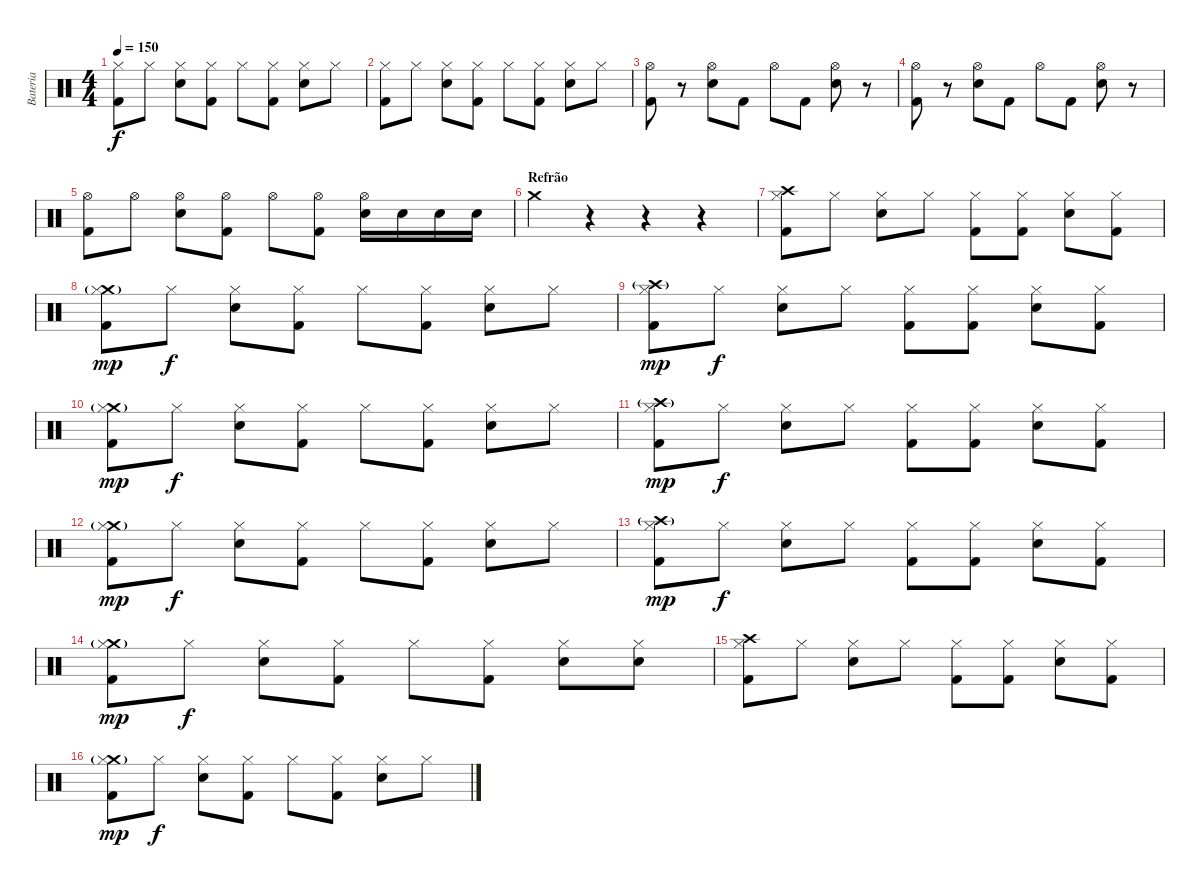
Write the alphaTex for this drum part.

\track ("Bateria" "Bateria") {instrument percussion}
\staff {score}
\articulation defaults
\ts (4 4)
\tempo 150
\clef neutral
\ks c
("Kick (hit) 2" "Hi-Hat (closed)").8{dy f} "Hi-Hat (closed)".8 ("Electric Snare (hit)" "Hi-Hat (closed)").8 ("Kick (hit) 2" "Hi-Hat (closed)").8 "Hi-Hat (closed)".8 ("Kick (hit) 2" "Hi-Hat (closed)").8 ("Electric Snare (hit)" "Hi-Hat (closed)").8 "Hi-Hat (closed)".8 |
("Kick (hit) 2" "Hi-Hat (closed)").8 "Hi-Hat (closed)".8 ("Electric Snare (hit)" "Hi-Hat (closed)").8 ("Kick (hit) 2" "Hi-Hat (closed)").8 "Hi-Hat (closed)".8 ("Kick (hit) 2" "Hi-Hat (closed)").8 ("Electric Snare (hit)" "Hi-Hat (closed)").8 "Hi-Hat (closed)".8 |
("Kick (hit) 2" "Hi-Hat (open)").8 r.8 ("Electric Snare (hit)" "Hi-Hat (open)").8 "Kick (hit) 2".8 "Hi-Hat (open)".8 "Kick (hit) 2".8 ("Electric Snare (hit)" "Hi-Hat (open)").8 r.8 |
("Kick (hit) 2" "Hi-Hat (open)").8 r.8 ("Electric Snare (hit)" "Hi-Hat (open)").8 "Kick (hit) 2".8 "Hi-Hat (open)".8 "Kick (hit) 2".8 ("Electric Snare (hit)" "Hi-Hat (open)").8 r.8 |
("Kick (hit) 2" "Hi-Hat (open)").8 "Hi-Hat (open)".8 ("Electric Snare (hit)" "Hi-Hat (open)").8 ("Kick (hit) 2" "Hi-Hat (open)").8 "Hi-Hat (open)".8 ("Kick (hit) 2" "Hi-Hat (open)").8 ("Electric Snare (hit)" "Hi-Hat (open)").16 "Electric Snare (hit)".16 "Electric Snare (hit)".16 "Electric Snare (hit)".16 |
\section ("" "Refrão")
"Crash medium (hit)".4 r.4 r.4 r.4 |
("Kick (hit) 2" "Crash high (hit)" "Hi-Hat (closed)").8 "Hi-Hat (closed)".8 ("Electric Snare (hit)" "Hi-Hat (closed)").8 "Hi-Hat (closed)".8 ("Kick (hit) 2" "Hi-Hat (closed)").8 ("Kick (hit) 2" "Hi-Hat (closed)").8 ("Electric Snare (hit)" "Hi-Hat (closed)").8 ("Kick (hit) 2" "Hi-Hat (closed)").8 |
("Kick (hit) 2" "Crash medium (hit)"{g} "Hi-Hat (closed)").8{dy mp} "Hi-Hat (closed)".8{dy f} ("Electric Snare (hit)" "Hi-Hat (closed)").8 ("Kick (hit) 2" "Hi-Hat (closed)").8 "Hi-Hat (closed)".8 ("Kick (hit) 2" "Hi-Hat (closed)").8 ("Electric Snare (hit)" "Hi-Hat (closed)").8 "Hi-Hat (closed)".8 |
("Kick (hit) 2" "Crash high (hit)"{g} "Hi-Hat (closed)").8{dy mp} "Hi-Hat (closed)".8{dy f} ("Electric Snare (hit)" "Hi-Hat (closed)").8 "Hi-Hat (closed)".8 ("Kick (hit) 2" "Hi-Hat (closed)").8 ("Kick (hit) 2" "Hi-Hat (closed)").8 ("Electric Snare (hit)" "Hi-Hat (closed)").8 ("Kick (hit) 2" "Hi-Hat (closed)").8 |
("Kick (hit) 2" "Crash medium (hit)"{g} "Hi-Hat (closed)").8{dy mp} "Hi-Hat (closed)".8{dy f} ("Electric Snare (hit)" "Hi-Hat (closed)").8 ("Kick (hit) 2" "Hi-Hat (closed)").8 "Hi-Hat (closed)".8 ("Kick (hit) 2" "Hi-Hat (closed)").8 ("Electric Snare (hit)" "Hi-Hat (closed)").8 "Hi-Hat (closed)".8 |
("Kick (hit) 2" "Crash high (hit)"{g} "Hi-Hat (closed)").8{dy mp} "Hi-Hat (closed)".8{dy f} ("Electric Snare (hit)" "Hi-Hat (closed)").8 "Hi-Hat (closed)".8 ("Kick (hit) 2" "Hi-Hat (closed)").8 ("Kick (hit) 2" "Hi-Hat (closed)").8 ("Electric Snare (hit)" "Hi-Hat (closed)").8 ("Kick (hit) 2" "Hi-Hat (closed)").8 |
("Kick (hit) 2" "Crash medium (hit)"{g} "Hi-Hat (closed)").8{dy mp} "Hi-Hat (closed)".8{dy f} ("Electric Snare (hit)" "Hi-Hat (closed)").8 ("Kick (hit) 2" "Hi-Hat (closed)").8 "Hi-Hat (closed)".8 ("Kick (hit) 2" "Hi-Hat (closed)").8 ("Electric Snare (hit)" "Hi-Hat (closed)").8 "Hi-Hat (closed)".8 |
("Kick (hit) 2" "Crash high (hit)"{g} "Hi-Hat (closed)").8{dy mp} "Hi-Hat (closed)".8{dy f} ("Electric Snare (hit)" "Hi-Hat (closed)").8 "Hi-Hat (closed)".8 ("Kick (hit) 2" "Hi-Hat (closed)").8 ("Kick (hit) 2" "Hi-Hat (closed)").8 ("Electric Snare (hit)" "Hi-Hat (closed)").8 ("Kick (hit) 2" "Hi-Hat (closed)").8 |
("Kick (hit) 2" "Crash medium (hit)"{g} "Hi-Hat (closed)").8{dy mp} "Hi-Hat (closed)".8{dy f} ("Electric Snare (hit)" "Hi-Hat (closed)").8 ("Kick (hit) 2" "Hi-Hat (closed)").8 "Hi-Hat (closed)".8 ("Kick (hit) 2" "Hi-Hat (closed)").8 ("Electric Snare (hit)" "Hi-Hat (closed)").8 ("Electric Snare (hit)" "Hi-Hat (closed)").8 |
("Kick (hit) 2" "Crash high (hit)" "Hi-Hat (closed)").8 "Hi-Hat (closed)".8 ("Electric Snare (hit)" "Hi-Hat (closed)").8 "Hi-Hat (closed)".8 ("Kick (hit) 2" "Hi-Hat (closed)").8 ("Kick (hit) 2" "Hi-Hat (closed)").8 ("Electric Snare (hit)" "Hi-Hat (closed)").8 ("Kick (hit) 2" "Hi-Hat (closed)").8 |
("Kick (hit) 2" "Crash medium (hit)"{g} "Hi-Hat (closed)").8{dy mp} "Hi-Hat (closed)".8{dy f} ("Electric Snare (hit)" "Hi-Hat (closed)").8 ("Kick (hit) 2" "Hi-Hat (closed)").8 "Hi-Hat (closed)".8 ("Kick (hit) 2" "Hi-Hat (closed)").8 ("Electric Snare (hit)" "Hi-Hat (closed)").8 "Hi-Hat (closed)".8
